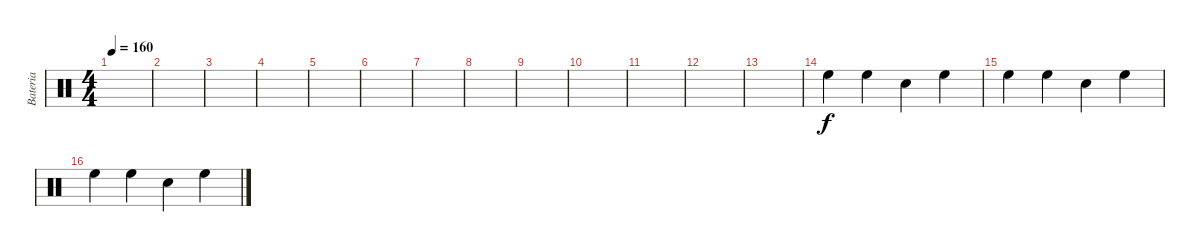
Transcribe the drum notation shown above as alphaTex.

\track ("Bateria" "Bateria") {instrument percussion}
\staff {score}
\articulation defaults
\ts (4 4)
\tempo 160
\clef neutral
\ks c
|
|
|
|
|
|
|
|
|
|
|
|
|
"High Floor Tom (hit)".4 "High Floor Tom (hit)".4 "Snare (hit) 2".4 "High Floor Tom (hit)".4 |
"High Floor Tom (hit)".4 "High Floor Tom (hit)".4 "Snare (hit) 2".4 "High Floor Tom (hit)".4 |
"High Floor Tom (hit)".4 "High Floor Tom (hit)".4 "Snare (hit) 2".4 "High Floor Tom (hit)".4
